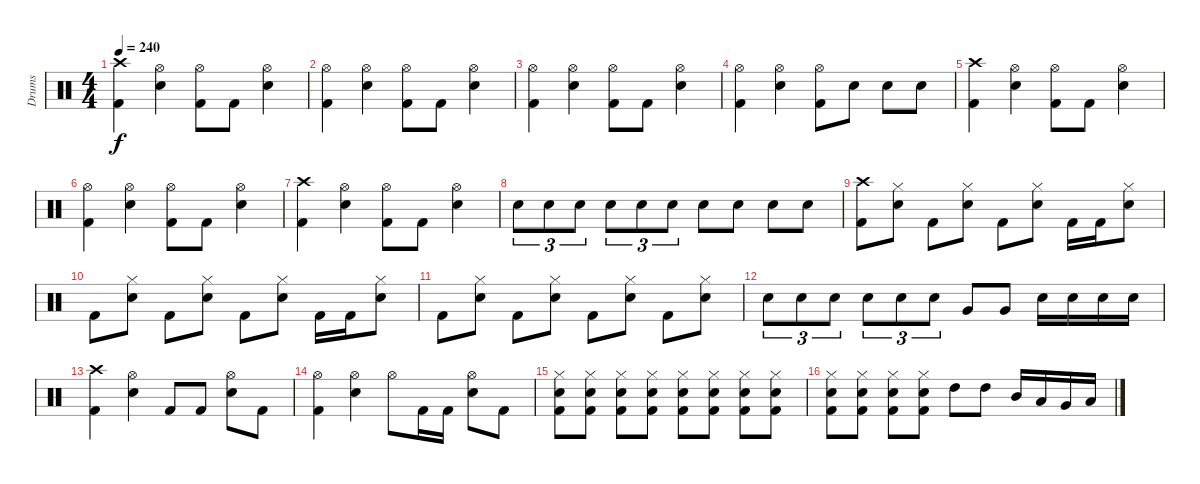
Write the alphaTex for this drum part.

\track ("Drums" "Drums") {instrument percussion}
\staff {score}
\articulation defaults
\ts (4 4)
\tempo 240
\clef neutral
\ks c
("Crash high (hit)" "Kick (hit) 2").4{dy f} ("Hi-Hat (open)" "Snare (hit) 2").4 ("Hi-Hat (open)" "Kick (hit) 2").8 "Kick (hit) 2".8 ("Hi-Hat (open)" "Snare (hit) 2").4 |
("Hi-Hat (open)" "Kick (hit) 2").4 ("Hi-Hat (open)" "Snare (hit) 2").4 ("Hi-Hat (open)" "Kick (hit) 2").8 "Kick (hit) 2".8 ("Hi-Hat (open)" "Snare (hit) 2").4 |
("Hi-Hat (open)" "Kick (hit) 2").4 ("Hi-Hat (open)" "Snare (hit) 2").4 ("Hi-Hat (open)" "Kick (hit) 2").8 "Kick (hit) 2".8 ("Hi-Hat (open)" "Snare (hit) 2").4 |
("Hi-Hat (open)" "Kick (hit) 2").4 ("Hi-Hat (open)" "Snare (hit) 2").4 ("Hi-Hat (open)" "Kick (hit) 2").8 "Snare (hit) 2".8 "Snare (hit) 2".8 "Snare (hit) 2".8 |
("Crash high (hit)" "Kick (hit) 2").4 ("Hi-Hat (open)" "Snare (hit) 2").4 ("Hi-Hat (open)" "Kick (hit) 2").8 "Kick (hit) 2".8 ("Hi-Hat (open)" "Snare (hit) 2").4 |
("Hi-Hat (open)" "Kick (hit) 2").4 ("Hi-Hat (open)" "Snare (hit) 2").4 ("Hi-Hat (open)" "Kick (hit) 2").8 "Kick (hit) 2".8 ("Hi-Hat (open)" "Snare (hit) 2").4 |
("Crash high (hit)" "Kick (hit) 2").4 ("Hi-Hat (open)" "Snare (hit) 2").4 ("Hi-Hat (open)" "Kick (hit) 2").8 "Kick (hit) 2".8 ("Hi-Hat (open)" "Snare (hit) 2").4 |
"Snare (hit) 2".8{tu (3 2)} "Snare (hit) 2".8{tu (3 2)} "Snare (hit) 2".8{tu (3 2)} "Snare (hit) 2".8{tu (3 2)} "Snare (hit) 2".8{tu (3 2)} "Snare (hit) 2".8{tu (3 2)} "Snare (hit) 2".8 "Snare (hit) 2".8 "Snare (hit) 2".8 "Snare (hit) 2".8 |
("Crash high (hit)" "Kick (hit) 2").8 ("Hi-Hat (closed)" "Snare (hit) 2").8 "Kick (hit) 2".8 ("Hi-Hat (closed)" "Snare (hit) 2").8 "Kick (hit) 2".8 ("Hi-Hat (closed)" "Snare (hit) 2").8 "Kick (hit) 2".16 "Kick (hit) 2".16 ("Hi-Hat (closed)" "Snare (hit) 2").8 |
"Kick (hit) 2".8 ("Hi-Hat (closed)" "Snare (hit) 2").8 "Kick (hit) 2".8 ("Hi-Hat (closed)" "Snare (hit) 2").8 "Kick (hit) 2".8 ("Hi-Hat (closed)" "Snare (hit) 2").8 "Kick (hit) 2".16 "Kick (hit) 2".16 ("Hi-Hat (closed)" "Snare (hit) 2").8 |
"Kick (hit) 2".8 ("Hi-Hat (closed)" "Snare (hit) 2").8 "Kick (hit) 2".8 ("Hi-Hat (closed)" "Snare (hit) 2").8 "Kick (hit) 2".8 ("Hi-Hat (closed)" "Snare (hit) 2").8 "Kick (hit) 2".8 ("Hi-Hat (closed)" "Snare (hit) 2").8 |
"Snare (hit) 2".8{tu (3 2)} "Snare (hit) 2".8{tu (3 2)} "Snare (hit) 2".8{tu (3 2)} "Snare (hit) 2".8{tu (3 2)} "Snare (hit) 2".8{tu (3 2)} "Snare (hit) 2".8{tu (3 2)} "Very Low Tom (hit)".8 "Very Low Tom (hit)".8 "Snare (hit) 2".16 "Snare (hit) 2".16 "Snare (hit) 2".16 "Snare (hit) 2".16 |
("Crash high (hit)" "Kick (hit) 2").4 ("Hi-Hat (open)" "Snare (hit) 2").4 "Kick (hit) 2".8 "Kick (hit) 2".8 ("Hi-Hat (open)" "Snare (hit) 2").8 "Kick (hit) 2".8 |
("Hi-Hat (open)" "Kick (hit) 2").4 ("Hi-Hat (open)" "Snare (hit) 2").4 "Hi-Hat (open)".8 "Kick (hit) 2".16 "Kick (hit) 2".16 ("Hi-Hat (open)" "Snare (hit) 2").8 "Kick (hit) 2".8 |
("Hi-Hat (closed)" "Snare (hit) 2" "Kick (hit) 2").8 ("Hi-Hat (closed)" "Snare (hit) 2" "Kick (hit) 2").8 ("Hi-Hat (closed)" "Snare (hit) 2" "Kick (hit) 2").8 ("Hi-Hat (closed)" "Snare (hit) 2" "Kick (hit) 2").8 ("Hi-Hat (closed)" "Snare (hit) 2" "Kick (hit) 2").8 ("Hi-Hat (closed)" "Snare (hit) 2" "Kick (hit) 2").8 ("Hi-Hat (closed)" "Snare (hit) 2" "Kick (hit) 2").8 ("Hi-Hat (closed)" "Snare (hit) 2" "Kick (hit) 2").8 |
("Hi-Hat (closed)" "Snare (hit) 2" "Kick (hit) 2").8 ("Hi-Hat (closed)" "Snare (hit) 2" "Kick (hit) 2").8 ("Hi-Hat (closed)" "Snare (hit) 2" "Kick (hit) 2").8 ("Hi-Hat (closed)" "Snare (hit) 2" "Kick (hit) 2").8 "High Tom (hit)".8 "High Tom (hit)".8 "Mid Tom (hit)".16 "Low Tom (hit)".16 "Very Low Tom (hit)".16 "Low Floor Tom (hit)".16
